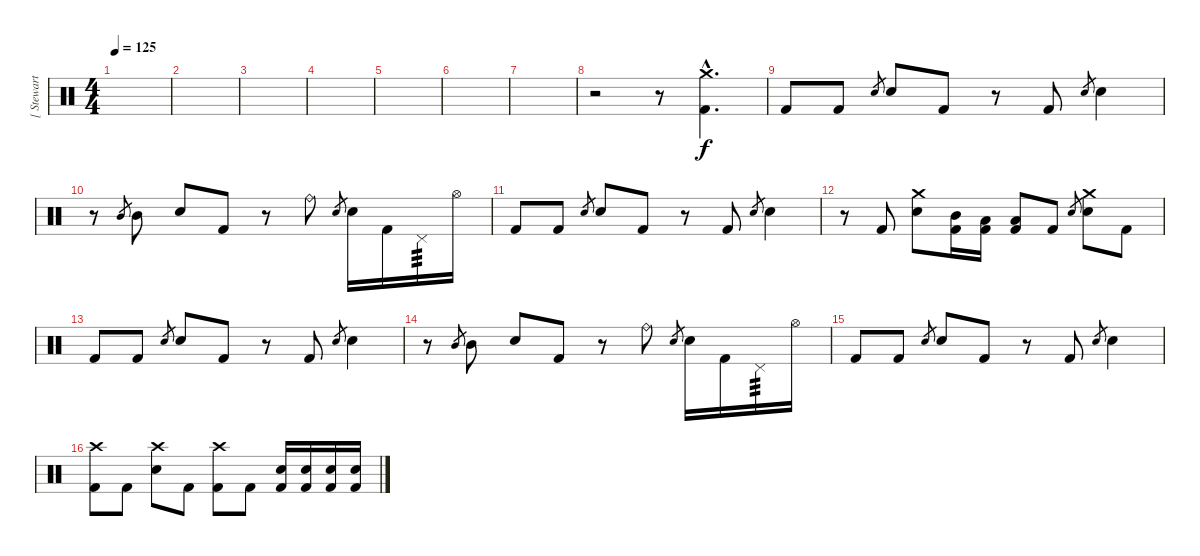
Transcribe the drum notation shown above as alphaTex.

\track ("[ Stewart ]" "[ Stewart ") {instrument percussion}
\staff {score}
\articulation defaults
\ts (4 4)
\tempo 125
\clef neutral
\ks c
|
|
|
|
|
|
|
r.2 r.8 ("Kick (hit) 2"{hac} "Crash medium (hit)"{hac}).4{d} |
"Kick (hit) 2".8 "Kick (hit) 2".8 "Electric Snare (hit)".8{gr} "Electric Snare (hit)".8 "Kick (hit) 2".8 r.8 "Kick (hit) 2".8 "Electric Snare (hit)".8{gr} "Electric Snare (hit)".4 |
r.8 "Mid Tom (hit)".8{gr} "Mid Tom (hit)".8 "Electric Snare (hit)".8 "Kick (hit) 2".8 r.8 "Ride (bell)".8 "Electric Snare (hit)".8{gr} "Electric Snare (hit)".16 "Kick (hit) 2".16 "Pedal Hi-Hat (hit)".16{tp 3} "Hi-Hat (open)".16 |
"Kick (hit) 2".8 "Kick (hit) 2".8 "Electric Snare (hit)".8{gr} "Electric Snare (hit)".8 "Kick (hit) 2".8 r.8 "Kick (hit) 2".8 "Electric Snare (hit)".8{gr} "Electric Snare (hit)".4 |
r.8 "Kick (hit) 2".8 ("Electric Snare (hit)" "Crash medium (hit)").8 ("Mid Tom (hit)" "Kick (hit) 2").16 ("Low Tom (hit)" "Kick (hit) 2").16 ("Low Tom (hit)" "Kick (hit) 2").8 "Kick (hit) 2".8 "Electric Snare (hit)".8{gr} ("Crash medium (hit)" "Electric Snare (hit)").8 "Kick (hit) 2".8 |
"Kick (hit) 2".8 "Kick (hit) 2".8 "Electric Snare (hit)".8{gr} "Electric Snare (hit)".8 "Kick (hit) 2".8 r.8 "Kick (hit) 2".8 "Electric Snare (hit)".8{gr} "Electric Snare (hit)".4 |
r.8 "Mid Tom (hit)".8{gr} "Mid Tom (hit)".8 "Electric Snare (hit)".8 "Kick (hit) 2".8 r.8 "Ride (bell)".8 "Electric Snare (hit)".8{gr} "Electric Snare (hit)".16 "Kick (hit) 2".16 "Pedal Hi-Hat (hit)".16{tp 3} "Hi-Hat (open)".16 |
"Kick (hit) 2".8 "Kick (hit) 2".8 "Electric Snare (hit)".8{gr} "Electric Snare (hit)".8 "Kick (hit) 2".8 r.8 "Kick (hit) 2".8 "Electric Snare (hit)".8{gr} "Electric Snare (hit)".4 |
("Kick (hit) 2" "Crash high (hit)").8 "Kick (hit) 2".8 ("Electric Snare (hit)" "Crash high (hit)").8 "Kick (hit) 2".8 ("Kick (hit) 2" "Crash high (hit)").8 "Kick (hit) 2".8 ("Kick (hit) 2" "Electric Snare (hit)").16 ("Kick (hit) 2" "Electric Snare (hit)").16 ("Kick (hit) 2" "Electric Snare (hit)").16 ("Kick (hit) 2" "Electric Snare (hit)").16
